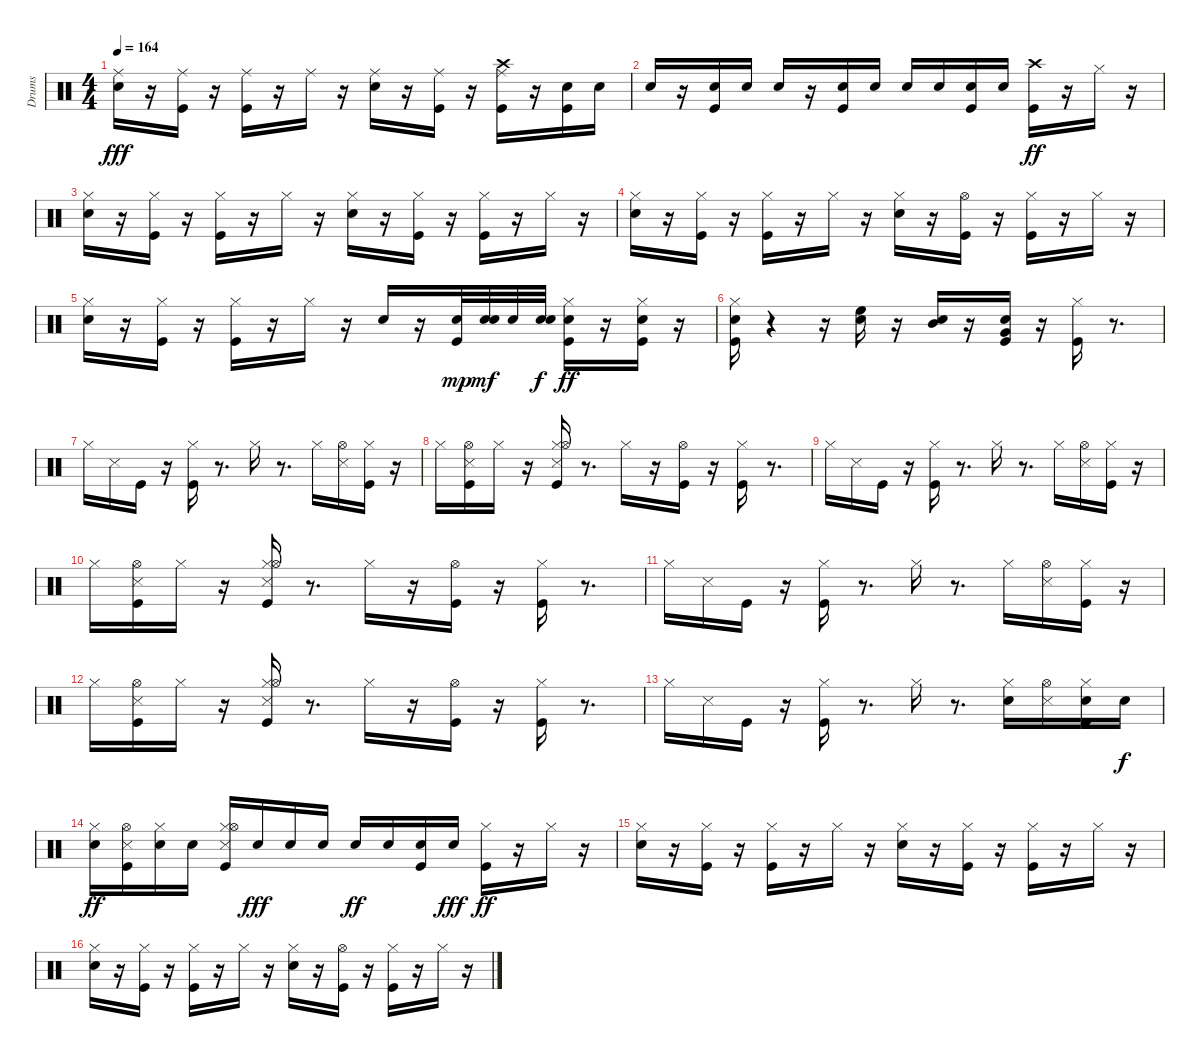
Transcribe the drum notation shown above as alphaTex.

\track ("Drums" "Drums") {instrument percussion}
\staff {score}
\articulation defaults
\ts (4 4)
\tempo 164
\clef neutral
\ks c
("Electric Snare (hit)" "Ride (middle)").16{dy fff} r.16 ("Kick (hit)" "Ride (middle)").16 r.16 ("Kick (hit)" "Ride (middle)").16 r.16 "Ride (middle)".16 r.16 ("Electric Snare (hit)" "Ride (middle)").16 r.16 ("Kick (hit)" "Ride (middle)").16 r.16 ("Kick (hit)" "Ride (middle)" "Crash high (hit)").16 r.16 ("Electric Snare (hit)" "Kick (hit)").16 "Electric Snare (hit)".16 |
"Electric Snare (hit)".16 r.16 ("Electric Snare (hit)" "Kick (hit)").16 "Electric Snare (hit)".16 "Electric Snare (hit)".16 r.16 ("Electric Snare (hit)" "Kick (hit)").16 "Electric Snare (hit)".16 "Electric Snare (hit)".16 "Electric Snare (hit)".16 ("Kick (hit)" "Electric Snare (hit)").16 "Electric Snare (hit)".16 ("Kick (hit)" "Crash high (hit)").16{dy ff} r.16 "Hi-Hat (closed)".16 r.16 |
("Electric Snare (hit)" "Hi-Hat (closed)").16 r.16 ("Kick (hit)" "Hi-Hat (closed)").16 r.16 ("Kick (hit)" "Hi-Hat (closed)").16 r.16 "Hi-Hat (closed)".16 r.16 ("Electric Snare (hit)" "Hi-Hat (closed)").16 r.16 ("Kick (hit)" "Hi-Hat (closed)").16 r.16 ("Kick (hit)" "Hi-Hat (closed)").16 r.16 "Hi-Hat (closed)".16 r.16 |
("Electric Snare (hit)" "Hi-Hat (closed)").16 r.16 ("Kick (hit)" "Hi-Hat (closed)").16 r.16 ("Kick (hit)" "Hi-Hat (closed)").16 r.16 "Hi-Hat (closed)".16 r.16 ("Electric Snare (hit)" "Hi-Hat (closed)").16 r.16 ("Kick (hit)" "Hi-Hat (open)").16 r.16 ("Kick (hit)" "Hi-Hat (closed)").16 r.16 "Hi-Hat (closed)".16 r.16 |
("Electric Snare (hit)" "Hi-Hat (closed)").16 r.16 ("Kick (hit)" "Hi-Hat (closed)").16 r.16 ("Kick (hit)" "Hi-Hat (closed)").16 r.16 "Hi-Hat (closed)".16 r.16 "Electric Snare (hit)".16 r.16 ("Kick (hit)" "Electric Snare (hit)").32{dy mp} ("Electric Snare (hit)" "Electric Snare (hit)").32{dy mf} "Electric Snare (hit)".32 ("Electric Snare (hit)" "Electric Snare (hit)").32{dy f} ("Kick (hit)" "Electric Snare (hit)" "Hi-Hat (closed)").16{dy ff} r.16 ("Electric Snare (hit)" "Hi-Hat (closed)" "Kick (hit)").16 r.16 |
("Electric Snare (hit)" "Hi-Hat (closed)" "Kick (hit)").16 r.4 r.16 ("Electric Snare (hit)" "High Floor Tom (hit)").16 r.16 ("Electric Snare (hit)" "Mid Tom (hit)").16 r.16 ("Kick (hit)" "Electric Snare (hit)" "Very Low Tom (hit)").16 r.16 ("Kick (hit)" "Hi-Hat (closed)").16 r.8{d} |
"Hi-Hat (closed)".16 "Snare (side stick) 3".16 "Kick (hit)".16 r.16 ("Kick (hit)" "Hi-Hat (closed)").16 r.8{d} "Hi-Hat (closed)".16 r.8{d} "Hi-Hat (closed)".16 ("Snare (side stick) 3" "Hi-Hat (open)").16 ("Hi-Hat (closed)" "Kick (hit)").16 r.16 |
"Hi-Hat (closed)".16 ("Kick (hit)" "Snare (side stick) 3" "Hi-Hat (open)").16 "Hi-Hat (closed)".16 r.16 ("Kick (hit)" "Hi-Hat (closed)" "Snare (side stick) 3" "Hi-Hat (open)").16 r.8{d} "Hi-Hat (closed)".16 r.16 ("Kick (hit)" "Hi-Hat (open)").16 r.16 ("Kick (hit)" "Hi-Hat (closed)").16 r.8{d} |
"Hi-Hat (closed)".16 "Snare (side stick) 3".16 "Kick (hit)".16 r.16 ("Kick (hit)" "Hi-Hat (closed)").16 r.8{d} "Hi-Hat (closed)".16 r.8{d} "Hi-Hat (closed)".16 ("Snare (side stick) 3" "Hi-Hat (open)").16 ("Hi-Hat (closed)" "Kick (hit)").16 r.16 |
"Hi-Hat (closed)".16 ("Kick (hit)" "Snare (side stick) 3" "Hi-Hat (open)").16 "Hi-Hat (closed)".16 r.16 ("Kick (hit)" "Hi-Hat (closed)" "Snare (side stick) 3" "Hi-Hat (open)").16 r.8{d} "Hi-Hat (closed)".16 r.16 ("Kick (hit)" "Hi-Hat (open)").16 r.16 ("Kick (hit)" "Hi-Hat (closed)").16 r.8{d} |
"Hi-Hat (closed)".16 "Snare (side stick) 3".16 "Kick (hit)".16 r.16 ("Kick (hit)" "Hi-Hat (closed)").16 r.8{d} "Hi-Hat (closed)".16 r.8{d} "Hi-Hat (closed)".16 ("Snare (side stick) 3" "Hi-Hat (open)").16 ("Hi-Hat (closed)" "Kick (hit)").16 r.16 |
"Hi-Hat (closed)".16 ("Kick (hit)" "Snare (side stick) 3" "Hi-Hat (open)").16 "Hi-Hat (closed)".16 r.16 ("Kick (hit)" "Hi-Hat (closed)" "Snare (side stick) 3" "Hi-Hat (open)").16 r.8{d} "Hi-Hat (closed)".16 r.16 ("Kick (hit)" "Hi-Hat (open)").16 r.16 ("Kick (hit)" "Hi-Hat (closed)").16 r.8{d} |
"Hi-Hat (closed)".16 "Snare (side stick) 3".16 "Kick (hit)".16 r.16 ("Kick (hit)" "Hi-Hat (closed)").16 r.8{d} "Hi-Hat (closed)".16 r.8{d} ("Hi-Hat (closed)" "Electric Snare (hit)").16 ("Snare (side stick) 3" "Hi-Hat (open)").16 ("Hi-Hat (closed)" "Kick (hit)" "Electric Snare (hit)").16 "Electric Snare (hit)".16{dy f} |
("Hi-Hat (closed)" "Electric Snare (hit)").16{dy ff} ("Kick (hit)" "Snare (side stick) 3" "Hi-Hat (open)").16 ("Hi-Hat (closed)" "Electric Snare (hit)").16 "Electric Snare (hit)".16 ("Kick (hit)" "Hi-Hat (closed)" "Snare (side stick) 3" "Hi-Hat (open)").16 "Electric Snare (hit)".16{dy fff} "Electric Snare (hit)".16 "Electric Snare (hit)".16 "Electric Snare (hit)".16{dy ff} "Electric Snare (hit)".16 ("Electric Snare (hit)" "Kick (hit)").16 "Electric Snare (hit)".16{dy fff} ("Kick (hit)" "Hi-Hat (closed)").16{dy ff} r.16 "Hi-Hat (closed)".16 r.16 |
("Electric Snare (hit)" "Hi-Hat (closed)").16 r.16 ("Kick (hit)" "Hi-Hat (closed)").16 r.16 ("Kick (hit)" "Hi-Hat (closed)").16 r.16 "Hi-Hat (closed)".16 r.16 ("Electric Snare (hit)" "Hi-Hat (closed)").16 r.16 ("Kick (hit)" "Hi-Hat (closed)").16 r.16 ("Kick (hit)" "Hi-Hat (closed)").16 r.16 "Hi-Hat (closed)".16 r.16 |
("Electric Snare (hit)" "Hi-Hat (closed)").16 r.16 ("Kick (hit)" "Hi-Hat (closed)").16 r.16 ("Kick (hit)" "Hi-Hat (closed)").16 r.16 "Hi-Hat (closed)".16 r.16 ("Electric Snare (hit)" "Hi-Hat (closed)").16 r.16 ("Kick (hit)" "Hi-Hat (open)").16 r.16 ("Kick (hit)" "Hi-Hat (closed)").16 r.16 "Hi-Hat (closed)".16 r.16
